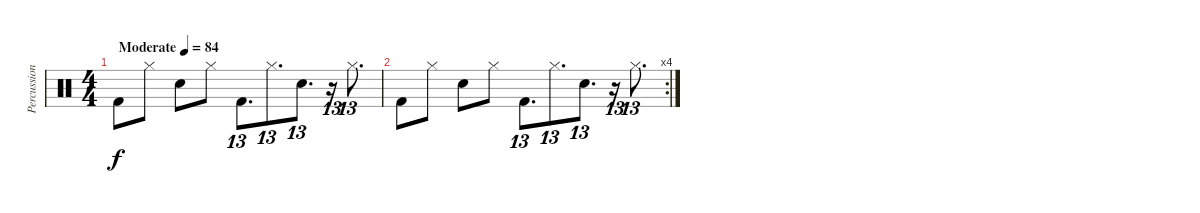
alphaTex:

\track ("Percussion" "Percussion") {instrument percussion}
\staff {score}
\articulation defaults
\ts (4 4)
\tempo (84 "Moderate")
\clef neutral
\ks c "Kick (hit) 2".8{dy f} "Hi-Hat (closed)".8 "Electric Snare (hit)".8 "Hi-Hat (closed)".8 "Kick (hit) 2".8{d tu (13 8)} "Hi-Hat (closed)".8{d tu (13 8)} "Electric Snare (hit)".8{d tu (13 8)}
r.16{tu (13 8)} "Hi-Hat (closed)".8{d tu (13 8)} |
\rc 4 "Kick (hit) 2".8 "Hi-Hat (closed)".8 "Electric Snare (hit)".8 "Hi-Hat (closed)".8 "Kick (hit) 2".8{d tu (13 8)} "Hi-Hat (closed)".8{d tu (13 8)} "Electric Snare (hit)".8{d tu (13 8)}
r.16{tu (13 8)} "Hi-Hat (closed)".8{d tu (13 8)}
